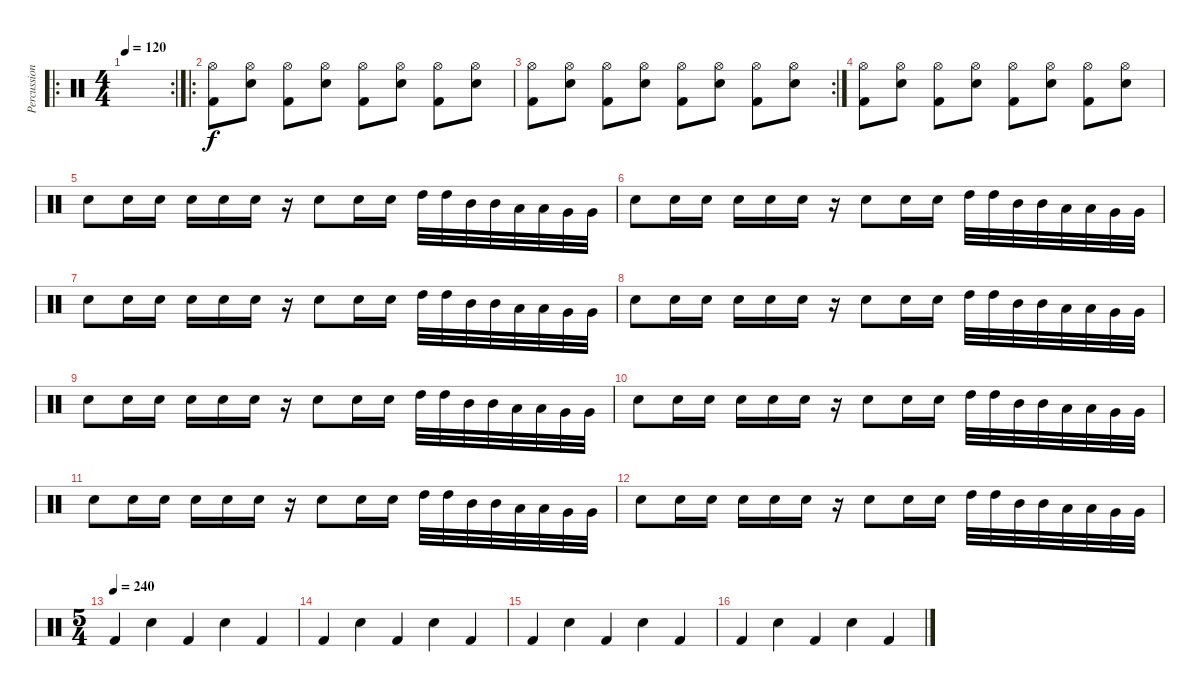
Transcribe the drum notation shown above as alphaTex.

\track ("Percussion" "Percussion") {instrument percussion}
\staff {score}
\articulation defaults
\ro
\rc 2
\ts (4 4)
\tempo 120
\clef neutral
\ks c
|
\ro
("Hi-Hat (open)" "Kick (hit) 2").8 ("Hi-Hat (open)" "Electric Snare (hit)").8 ("Hi-Hat (open)" "Kick (hit) 2").8 ("Hi-Hat (open)" "Electric Snare (hit)").8 ("Hi-Hat (open)" "Kick (hit) 2").8 ("Hi-Hat (open)" "Electric Snare (hit)").8 ("Hi-Hat (open)" "Kick (hit) 2").8 ("Hi-Hat (open)" "Electric Snare (hit)").8 |
\rc 2
("Hi-Hat (open)" "Kick (hit) 2").8 ("Hi-Hat (open)" "Electric Snare (hit)").8 ("Hi-Hat (open)" "Kick (hit) 2").8 ("Hi-Hat (open)" "Electric Snare (hit)").8 ("Hi-Hat (open)" "Kick (hit) 2").8 ("Hi-Hat (open)" "Electric Snare (hit)").8 ("Hi-Hat (open)" "Kick (hit) 2").8 ("Hi-Hat (open)" "Electric Snare (hit)").8 |
("Hi-Hat (open)" "Kick (hit) 2").8 ("Hi-Hat (open)" "Electric Snare (hit)").8 ("Hi-Hat (open)" "Kick (hit) 2").8 ("Hi-Hat (open)" "Electric Snare (hit)").8 ("Hi-Hat (open)" "Kick (hit) 2").8 ("Hi-Hat (open)" "Electric Snare (hit)").8 ("Hi-Hat (open)" "Kick (hit) 2").8 ("Hi-Hat (open)" "Electric Snare (hit)").8 |
"Electric Snare (hit)".8 "Electric Snare (hit)".16 "Electric Snare (hit)".16 "Electric Snare (hit)".16 "Electric Snare (hit)".16 "Electric Snare (hit)".16 r.16 "Electric Snare (hit)".8 "Electric Snare (hit)".16 "Electric Snare (hit)".16 "High Tom (hit)".32 "High Tom (hit)".32 "Mid Tom (hit)".32 "Mid Tom (hit)".32 "Low Tom (hit)".32 "Low Tom (hit)".32 "Very Low Tom (hit)".32 "Very Low Tom (hit)".32 |
"Electric Snare (hit)".8 "Electric Snare (hit)".16 "Electric Snare (hit)".16 "Electric Snare (hit)".16 "Electric Snare (hit)".16 "Electric Snare (hit)".16 r.16 "Electric Snare (hit)".8 "Electric Snare (hit)".16 "Electric Snare (hit)".16 "High Tom (hit)".32 "High Tom (hit)".32 "Mid Tom (hit)".32 "Mid Tom (hit)".32 "Low Tom (hit)".32 "Low Tom (hit)".32 "Very Low Tom (hit)".32 "Very Low Tom (hit)".32 |
"Electric Snare (hit)".8 "Electric Snare (hit)".16 "Electric Snare (hit)".16 "Electric Snare (hit)".16 "Electric Snare (hit)".16 "Electric Snare (hit)".16 r.16 "Electric Snare (hit)".8 "Electric Snare (hit)".16 "Electric Snare (hit)".16 "High Tom (hit)".32 "High Tom (hit)".32 "Mid Tom (hit)".32 "Mid Tom (hit)".32 "Low Tom (hit)".32 "Low Tom (hit)".32 "Very Low Tom (hit)".32 "Very Low Tom (hit)".32 |
"Electric Snare (hit)".8 "Electric Snare (hit)".16 "Electric Snare (hit)".16 "Electric Snare (hit)".16 "Electric Snare (hit)".16 "Electric Snare (hit)".16 r.16 "Electric Snare (hit)".8 "Electric Snare (hit)".16 "Electric Snare (hit)".16 "High Tom (hit)".32 "High Tom (hit)".32 "Mid Tom (hit)".32 "Mid Tom (hit)".32 "Low Tom (hit)".32 "Low Tom (hit)".32 "Very Low Tom (hit)".32 "Very Low Tom (hit)".32 |
"Electric Snare (hit)".8 "Electric Snare (hit)".16 "Electric Snare (hit)".16 "Electric Snare (hit)".16 "Electric Snare (hit)".16 "Electric Snare (hit)".16 r.16 "Electric Snare (hit)".8 "Electric Snare (hit)".16 "Electric Snare (hit)".16 "High Tom (hit)".32 "High Tom (hit)".32 "Mid Tom (hit)".32 "Mid Tom (hit)".32 "Low Tom (hit)".32 "Low Tom (hit)".32 "Very Low Tom (hit)".32 "Very Low Tom (hit)".32 |
"Electric Snare (hit)".8 "Electric Snare (hit)".16 "Electric Snare (hit)".16 "Electric Snare (hit)".16 "Electric Snare (hit)".16 "Electric Snare (hit)".16 r.16 "Electric Snare (hit)".8 "Electric Snare (hit)".16 "Electric Snare (hit)".16 "High Tom (hit)".32 "High Tom (hit)".32 "Mid Tom (hit)".32 "Mid Tom (hit)".32 "Low Tom (hit)".32 "Low Tom (hit)".32 "Very Low Tom (hit)".32 "Very Low Tom (hit)".32 |
"Electric Snare (hit)".8 "Electric Snare (hit)".16 "Electric Snare (hit)".16 "Electric Snare (hit)".16 "Electric Snare (hit)".16 "Electric Snare (hit)".16 r.16 "Electric Snare (hit)".8 "Electric Snare (hit)".16 "Electric Snare (hit)".16 "High Tom (hit)".32 "High Tom (hit)".32 "Mid Tom (hit)".32 "Mid Tom (hit)".32 "Low Tom (hit)".32 "Low Tom (hit)".32 "Very Low Tom (hit)".32 "Very Low Tom (hit)".32 |
"Electric Snare (hit)".8 "Electric Snare (hit)".16 "Electric Snare (hit)".16 "Electric Snare (hit)".16 "Electric Snare (hit)".16 "Electric Snare (hit)".16 r.16 "Electric Snare (hit)".8 "Electric Snare (hit)".16 "Electric Snare (hit)".16 "High Tom (hit)".32 "High Tom (hit)".32 "Mid Tom (hit)".32 "Mid Tom (hit)".32 "Low Tom (hit)".32 "Low Tom (hit)".32 "Very Low Tom (hit)".32 "Very Low Tom (hit)".32 |
\ts (5 4)
\tempo (240)
"Kick (hit) 2".4 "Electric Snare (hit)".4 "Kick (hit) 2".4 "Electric Snare (hit)".4 "Kick (hit) 2".4 |
"Kick (hit) 2".4 "Electric Snare (hit)".4 "Kick (hit) 2".4 "Electric Snare (hit)".4 "Kick (hit) 2".4 |
"Kick (hit) 2".4 "Electric Snare (hit)".4 "Kick (hit) 2".4 "Electric Snare (hit)".4 "Kick (hit) 2".4 |
"Kick (hit) 2".4 "Electric Snare (hit)".4 "Kick (hit) 2".4 "Electric Snare (hit)".4 "Kick (hit) 2".4
